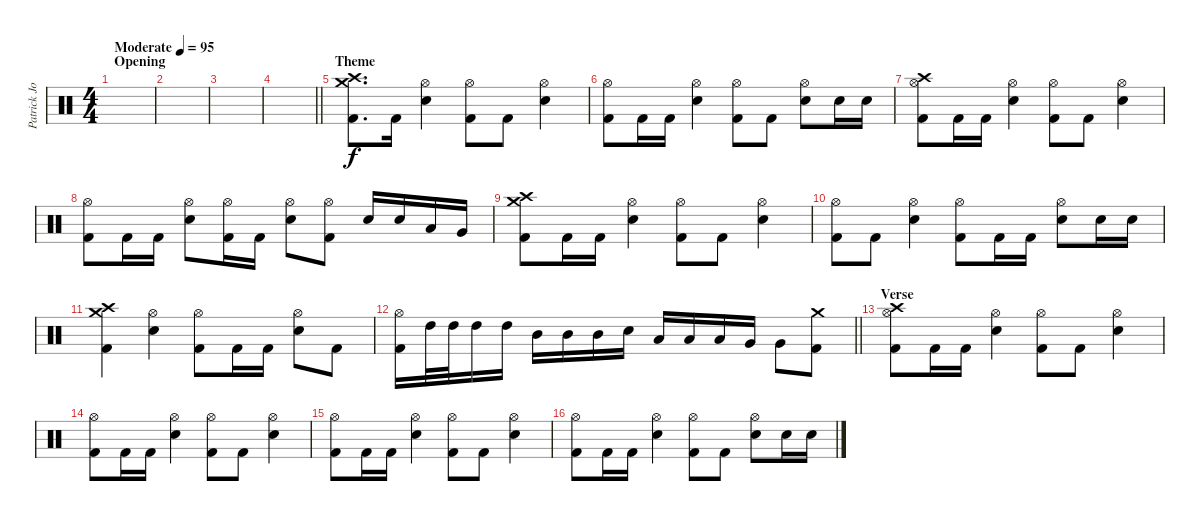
\track ("Patrick Johansson" "Patrick Jo") {instrument percussion}
\staff {score}
\articulation defaults
\ts (4 4)
\section ("" "Opening")
\tempo (95 "Moderate")
\clef neutral
\ks c
|
|
|
\barLineRight lightlight
|
\section ("" "Theme")
("Crash high (hit)" "Crash medium (hit)" "Kick (hit) 2").8{d} "Kick (hit) 2".16 ("Hi-Hat (open)" "Snare (hit) 2").4 ("Hi-Hat (open)" "Kick (hit) 2").8 "Kick (hit) 2".8 ("Hi-Hat (open)" "Snare (hit) 2").4 |
("Hi-Hat (open)" "Kick (hit) 2").8 "Kick (hit) 2".16 "Kick (hit) 2".16 ("Hi-Hat (open)" "Snare (hit) 2").4 ("Hi-Hat (open)" "Kick (hit) 2").8 "Kick (hit) 2".8 ("Hi-Hat (open)" "Snare (hit) 2").8 "Snare (hit) 2".16 "Snare (hit) 2".16 |
("Crash high (hit)" "Hi-Hat (open)" "Kick (hit) 2").8 "Kick (hit) 2".16 "Kick (hit) 2".16 ("Hi-Hat (open)" "Snare (hit) 2").4 ("Hi-Hat (open)" "Kick (hit) 2").8 "Kick (hit) 2".8 ("Hi-Hat (open)" "Snare (hit) 2").4 |
("Hi-Hat (open)" "Kick (hit) 2").8 "Kick (hit) 2".16 "Kick (hit) 2".16 ("Hi-Hat (open)" "Snare (hit) 2").8 ("Hi-Hat (open)" "Kick (hit) 2").16 "Kick (hit) 2".16 ("Hi-Hat (open)" "Snare (hit) 2").8 ("Hi-Hat (open)" "Kick (hit) 2").8 "Snare (hit) 2".16 "Snare (hit) 2".16 "Low Tom (hit)".16 "Very Low Tom (hit)".16 |
("Crash high (hit)" "Crash medium (hit)" "Kick (hit) 2").8 "Kick (hit) 2".16 "Kick (hit) 2".16 ("Hi-Hat (open)" "Snare (hit) 2").4 ("Hi-Hat (open)" "Kick (hit) 2").8 "Kick (hit) 2".8 ("Hi-Hat (open)" "Snare (hit) 2").4 |
("Hi-Hat (open)" "Kick (hit) 2").8 "Kick (hit) 2".8 ("Hi-Hat (open)" "Snare (hit) 2").4 ("Hi-Hat (open)" "Kick (hit) 2").8 "Kick (hit) 2".16 "Kick (hit) 2".16 ("Hi-Hat (open)" "Snare (hit) 2").8 "Snare (hit) 2".16 "Snare (hit) 2".16 |
("Crash medium (hit)" "Crash high (hit)" "Kick (hit) 2").4 ("Hi-Hat (open)" "Snare (hit) 2").4 ("Hi-Hat (open)" "Kick (hit) 2").8 "Kick (hit) 2".16 "Kick (hit) 2".16 ("Hi-Hat (open)" "Snare (hit) 2").8 "Kick (hit) 2".8 |
\barLineRight lightlight
("Hi-Hat (open)" "Kick (hit) 2").16 "High Tom (hit)".32 "High Tom (hit)".32 "High Tom (hit)".16 "High Tom (hit)".16 "Mid Tom (hit)".16 "Mid Tom (hit)".16 "Mid Tom (hit)".16 "Snare (hit) 2".16 "Low Tom (hit)".16 "Low Tom (hit)".16 "Low Tom (hit)".16 "Very Low Tom (hit)".16 "Very Low Tom (hit)".8 ("Crash medium (hit)" "Kick (hit) 2").8 |
\section ("" "Verse")
("Crash high (hit)" "Hi-Hat (open)" "Kick (hit) 2").8 "Kick (hit) 2".16 "Kick (hit) 2".16 ("Hi-Hat (open)" "Snare (hit) 2").4 ("Hi-Hat (open)" "Kick (hit) 2").8 "Kick (hit) 2".8 ("Hi-Hat (open)" "Snare (hit) 2").4 |
("Hi-Hat (open)" "Kick (hit) 2").8 "Kick (hit) 2".16 "Kick (hit) 2".16 ("Hi-Hat (open)" "Snare (hit) 2").4 ("Hi-Hat (open)" "Kick (hit) 2").8 "Kick (hit) 2".8 ("Hi-Hat (open)" "Snare (hit) 2").4 |
("Hi-Hat (open)" "Kick (hit) 2").8 "Kick (hit) 2".16 "Kick (hit) 2".16 ("Hi-Hat (open)" "Snare (hit) 2").4 ("Hi-Hat (open)" "Kick (hit) 2").8 "Kick (hit) 2".8 ("Hi-Hat (open)" "Snare (hit) 2").4 |
("Hi-Hat (open)" "Kick (hit) 2").8 "Kick (hit) 2".16 "Kick (hit) 2".16 ("Hi-Hat (open)" "Snare (hit) 2").4 ("Hi-Hat (open)" "Kick (hit) 2").8 "Kick (hit) 2".8 ("Hi-Hat (open)" "Snare (hit) 2").8 "Snare (hit) 2".16 "Snare (hit) 2".16
